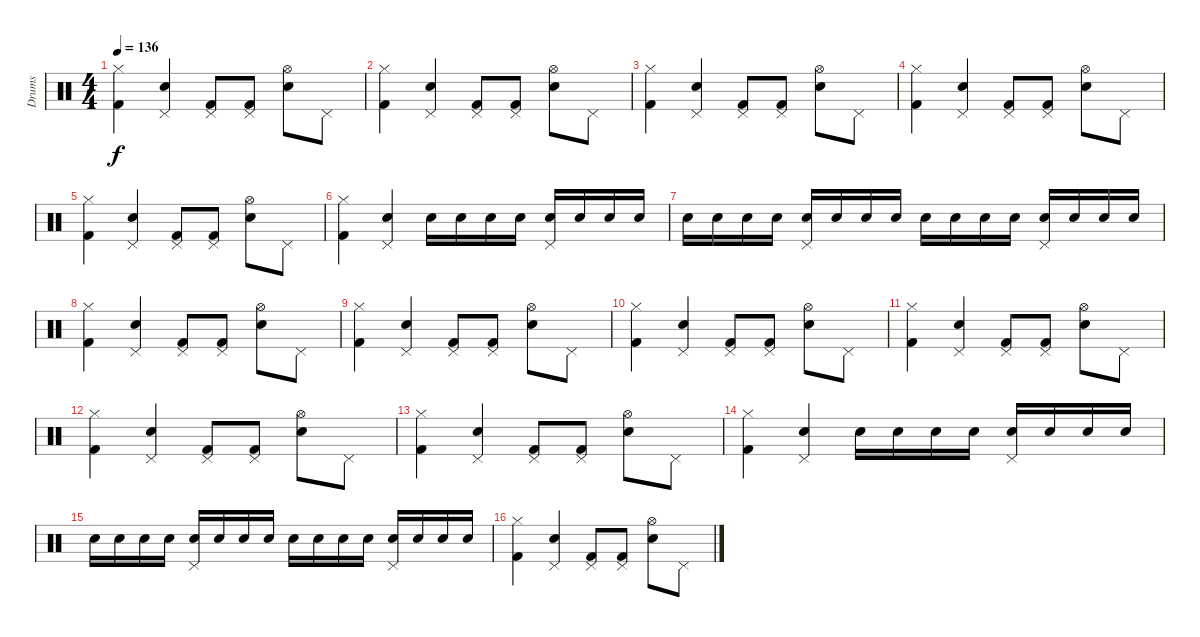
\track ("Drums" "Drums") {instrument percussion}
\staff {score}
\articulation defaults
\ts (4 4)
\tempo 136
\clef neutral
\ks c
("Hi-Hat (closed)" "Kick (hit) 2").4{dy f} ("Snare (hit) 2" "Pedal Hi-Hat (hit)").4 ("Pedal Hi-Hat (hit)" "Kick (hit) 2").8 ("Pedal Hi-Hat (hit)" "Kick (hit) 2").8 ("Snare (hit) 2" "Hi-Hat (open)").8 "Pedal Hi-Hat (hit)".8 |
("Hi-Hat (closed)" "Kick (hit) 2").4 ("Snare (hit) 2" "Pedal Hi-Hat (hit)").4 ("Pedal Hi-Hat (hit)" "Kick (hit) 2").8 ("Pedal Hi-Hat (hit)" "Kick (hit) 2").8 ("Snare (hit) 2" "Hi-Hat (open)").8 "Pedal Hi-Hat (hit)".8 |
("Hi-Hat (closed)" "Kick (hit) 2").4 ("Snare (hit) 2" "Pedal Hi-Hat (hit)").4 ("Pedal Hi-Hat (hit)" "Kick (hit) 2").8 ("Pedal Hi-Hat (hit)" "Kick (hit) 2").8 ("Snare (hit) 2" "Hi-Hat (open)").8 "Pedal Hi-Hat (hit)".8 |
("Hi-Hat (closed)" "Kick (hit) 2").4 ("Snare (hit) 2" "Pedal Hi-Hat (hit)").4 ("Pedal Hi-Hat (hit)" "Kick (hit) 2").8 ("Pedal Hi-Hat (hit)" "Kick (hit) 2").8 ("Snare (hit) 2" "Hi-Hat (open)").8 "Pedal Hi-Hat (hit)".8 |
("Hi-Hat (closed)" "Kick (hit) 2").4 ("Snare (hit) 2" "Pedal Hi-Hat (hit)").4 ("Pedal Hi-Hat (hit)" "Kick (hit) 2").8 ("Pedal Hi-Hat (hit)" "Kick (hit) 2").8 ("Snare (hit) 2" "Hi-Hat (open)").8 "Pedal Hi-Hat (hit)".8 |
("Hi-Hat (closed)" "Kick (hit) 2").4 ("Snare (hit) 2" "Pedal Hi-Hat (hit)").4 "Snare (hit) 2".16 "Snare (hit) 2".16 "Snare (hit) 2".16 "Snare (hit) 2".16 ("Snare (hit) 2" "Pedal Hi-Hat (hit)").16 "Snare (hit) 2".16 "Snare (hit) 2".16 "Snare (hit) 2".16 |
"Snare (hit) 2".16 "Snare (hit) 2".16 "Snare (hit) 2".16 "Snare (hit) 2".16 ("Snare (hit) 2" "Pedal Hi-Hat (hit)").16 "Snare (hit) 2".16 "Snare (hit) 2".16 "Snare (hit) 2".16 "Snare (hit) 2".16 "Snare (hit) 2".16 "Snare (hit) 2".16 "Snare (hit) 2".16 ("Snare (hit) 2" "Pedal Hi-Hat (hit)").16 "Snare (hit) 2".16 "Snare (hit) 2".16 "Snare (hit) 2".16 |
("Hi-Hat (closed)" "Kick (hit) 2").4 ("Snare (hit) 2" "Pedal Hi-Hat (hit)").4 ("Pedal Hi-Hat (hit)" "Kick (hit) 2").8 ("Pedal Hi-Hat (hit)" "Kick (hit) 2").8 ("Snare (hit) 2" "Hi-Hat (open)").8 "Pedal Hi-Hat (hit)".8 |
("Hi-Hat (closed)" "Kick (hit) 2").4 ("Snare (hit) 2" "Pedal Hi-Hat (hit)").4 ("Pedal Hi-Hat (hit)" "Kick (hit) 2").8 ("Pedal Hi-Hat (hit)" "Kick (hit) 2").8 ("Snare (hit) 2" "Hi-Hat (open)").8 "Pedal Hi-Hat (hit)".8 |
("Hi-Hat (closed)" "Kick (hit) 2").4 ("Snare (hit) 2" "Pedal Hi-Hat (hit)").4 ("Pedal Hi-Hat (hit)" "Kick (hit) 2").8 ("Pedal Hi-Hat (hit)" "Kick (hit) 2").8 ("Snare (hit) 2" "Hi-Hat (open)").8 "Pedal Hi-Hat (hit)".8 |
("Hi-Hat (closed)" "Kick (hit) 2").4 ("Snare (hit) 2" "Pedal Hi-Hat (hit)").4 ("Pedal Hi-Hat (hit)" "Kick (hit) 2").8 ("Pedal Hi-Hat (hit)" "Kick (hit) 2").8 ("Snare (hit) 2" "Hi-Hat (open)").8 "Pedal Hi-Hat (hit)".8 |
("Hi-Hat (closed)" "Kick (hit) 2").4 ("Snare (hit) 2" "Pedal Hi-Hat (hit)").4 ("Pedal Hi-Hat (hit)" "Kick (hit) 2").8 ("Pedal Hi-Hat (hit)" "Kick (hit) 2").8 ("Snare (hit) 2" "Hi-Hat (open)").8 "Pedal Hi-Hat (hit)".8 |
("Hi-Hat (closed)" "Kick (hit) 2").4 ("Snare (hit) 2" "Pedal Hi-Hat (hit)").4 ("Pedal Hi-Hat (hit)" "Kick (hit) 2").8 ("Pedal Hi-Hat (hit)" "Kick (hit) 2").8 ("Snare (hit) 2" "Hi-Hat (open)").8 "Pedal Hi-Hat (hit)".8 |
("Hi-Hat (closed)" "Kick (hit) 2").4 ("Snare (hit) 2" "Pedal Hi-Hat (hit)").4 "Snare (hit) 2".16 "Snare (hit) 2".16 "Snare (hit) 2".16 "Snare (hit) 2".16 ("Snare (hit) 2" "Pedal Hi-Hat (hit)").16 "Snare (hit) 2".16 "Snare (hit) 2".16 "Snare (hit) 2".16 |
"Snare (hit) 2".16 "Snare (hit) 2".16 "Snare (hit) 2".16 "Snare (hit) 2".16 ("Snare (hit) 2" "Pedal Hi-Hat (hit)").16 "Snare (hit) 2".16 "Snare (hit) 2".16 "Snare (hit) 2".16 "Snare (hit) 2".16 "Snare (hit) 2".16 "Snare (hit) 2".16 "Snare (hit) 2".16 ("Snare (hit) 2" "Pedal Hi-Hat (hit)").16 "Snare (hit) 2".16 "Snare (hit) 2".16 "Snare (hit) 2".16 |
("Hi-Hat (closed)" "Kick (hit) 2").4 ("Snare (hit) 2" "Pedal Hi-Hat (hit)").4 ("Pedal Hi-Hat (hit)" "Kick (hit) 2").8 ("Pedal Hi-Hat (hit)" "Kick (hit) 2").8 ("Snare (hit) 2" "Hi-Hat (open)").8 "Pedal Hi-Hat (hit)".8
